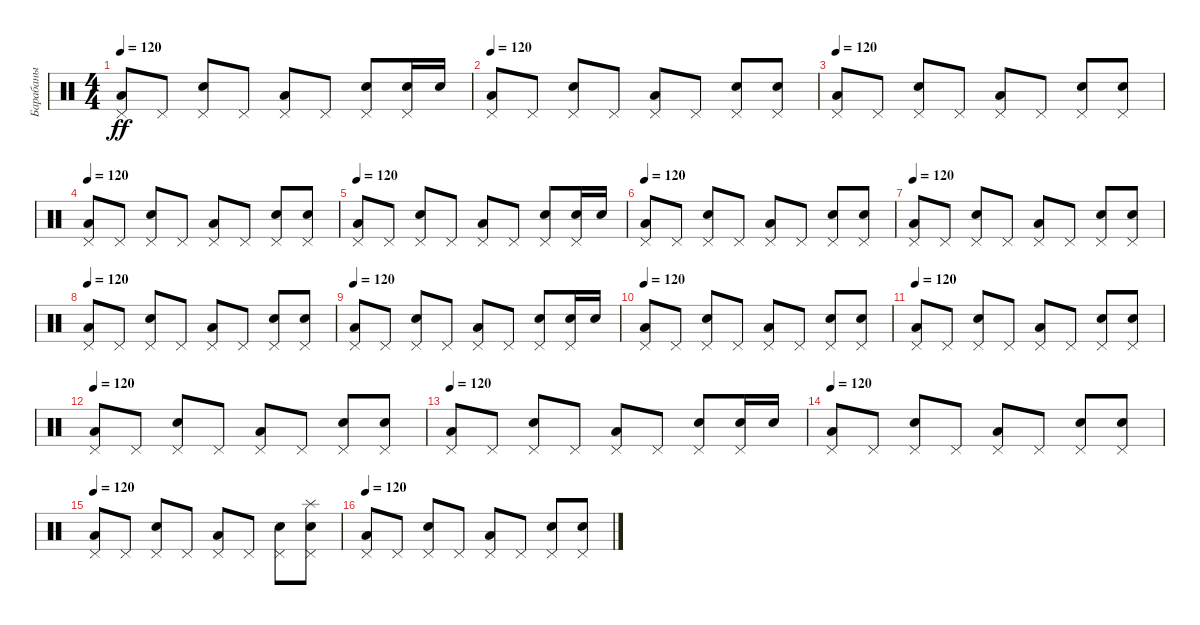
\track ("Барабаны" "Барабаны") {instrument percussion}
\staff {score}
\articulation defaults
\ts (4 4)
\tempo 120
\clef neutral
\ks c
("Low Floor Tom (hit)" "Pedal Hi-Hat (hit)").8{dy ff} "Pedal Hi-Hat (hit)".8 ("Electric Snare (hit)" "Pedal Hi-Hat (hit)").8 "Pedal Hi-Hat (hit)".8 ("Low Floor Tom (hit)" "Pedal Hi-Hat (hit)").8 "Pedal Hi-Hat (hit)".8 ("Electric Snare (hit)" "Pedal Hi-Hat (hit)").8 ("Electric Snare (hit)" "Pedal Hi-Hat (hit)").16 "Electric Snare (hit)".16 |
\tempo 120
("Low Floor Tom (hit)" "Pedal Hi-Hat (hit)").8 "Pedal Hi-Hat (hit)".8 ("Electric Snare (hit)" "Pedal Hi-Hat (hit)").8 "Pedal Hi-Hat (hit)".8 ("Low Floor Tom (hit)" "Pedal Hi-Hat (hit)").8 "Pedal Hi-Hat (hit)".8 ("Electric Snare (hit)" "Pedal Hi-Hat (hit)").8 ("Electric Snare (hit)" "Pedal Hi-Hat (hit)").8 |
\tempo 120
("Low Floor Tom (hit)" "Pedal Hi-Hat (hit)").8 "Pedal Hi-Hat (hit)".8 ("Electric Snare (hit)" "Pedal Hi-Hat (hit)").8 "Pedal Hi-Hat (hit)".8 ("Low Floor Tom (hit)" "Pedal Hi-Hat (hit)").8 "Pedal Hi-Hat (hit)".8 ("Electric Snare (hit)" "Pedal Hi-Hat (hit)").8 ("Electric Snare (hit)" "Pedal Hi-Hat (hit)").8 |
\tempo 120
("Low Floor Tom (hit)" "Pedal Hi-Hat (hit)").8 "Pedal Hi-Hat (hit)".8 ("Electric Snare (hit)" "Pedal Hi-Hat (hit)").8 "Pedal Hi-Hat (hit)".8 ("Low Floor Tom (hit)" "Pedal Hi-Hat (hit)").8 "Pedal Hi-Hat (hit)".8 ("Electric Snare (hit)" "Pedal Hi-Hat (hit)").8 ("Electric Snare (hit)" "Pedal Hi-Hat (hit)").8 |
\tempo 120
("Low Floor Tom (hit)" "Pedal Hi-Hat (hit)").8 "Pedal Hi-Hat (hit)".8 ("Electric Snare (hit)" "Pedal Hi-Hat (hit)").8 "Pedal Hi-Hat (hit)".8 ("Low Floor Tom (hit)" "Pedal Hi-Hat (hit)").8 "Pedal Hi-Hat (hit)".8 ("Electric Snare (hit)" "Pedal Hi-Hat (hit)").8 ("Electric Snare (hit)" "Pedal Hi-Hat (hit)").16 "Electric Snare (hit)".16 |
\tempo 120
("Low Floor Tom (hit)" "Pedal Hi-Hat (hit)").8 "Pedal Hi-Hat (hit)".8 ("Electric Snare (hit)" "Pedal Hi-Hat (hit)").8 "Pedal Hi-Hat (hit)".8 ("Low Floor Tom (hit)" "Pedal Hi-Hat (hit)").8 "Pedal Hi-Hat (hit)".8 ("Electric Snare (hit)" "Pedal Hi-Hat (hit)").8 ("Electric Snare (hit)" "Pedal Hi-Hat (hit)").8 |
\tempo 120
("Low Floor Tom (hit)" "Pedal Hi-Hat (hit)").8 "Pedal Hi-Hat (hit)".8 ("Electric Snare (hit)" "Pedal Hi-Hat (hit)").8 "Pedal Hi-Hat (hit)".8 ("Low Floor Tom (hit)" "Pedal Hi-Hat (hit)").8 "Pedal Hi-Hat (hit)".8 ("Electric Snare (hit)" "Pedal Hi-Hat (hit)").8 ("Electric Snare (hit)" "Pedal Hi-Hat (hit)").8 |
\tempo 120
("Low Floor Tom (hit)" "Pedal Hi-Hat (hit)").8 "Pedal Hi-Hat (hit)".8 ("Electric Snare (hit)" "Pedal Hi-Hat (hit)").8 "Pedal Hi-Hat (hit)".8 ("Low Floor Tom (hit)" "Pedal Hi-Hat (hit)").8 "Pedal Hi-Hat (hit)".8 ("Electric Snare (hit)" "Pedal Hi-Hat (hit)").8 ("Electric Snare (hit)" "Pedal Hi-Hat (hit)").8 |
\tempo 120
("Low Floor Tom (hit)" "Pedal Hi-Hat (hit)").8 "Pedal Hi-Hat (hit)".8 ("Electric Snare (hit)" "Pedal Hi-Hat (hit)").8 "Pedal Hi-Hat (hit)".8 ("Low Floor Tom (hit)" "Pedal Hi-Hat (hit)").8 "Pedal Hi-Hat (hit)".8 ("Electric Snare (hit)" "Pedal Hi-Hat (hit)").8 ("Electric Snare (hit)" "Pedal Hi-Hat (hit)").16 "Electric Snare (hit)".16 |
\tempo 120
("Low Floor Tom (hit)" "Pedal Hi-Hat (hit)").8 "Pedal Hi-Hat (hit)".8 ("Electric Snare (hit)" "Pedal Hi-Hat (hit)").8 "Pedal Hi-Hat (hit)".8 ("Low Floor Tom (hit)" "Pedal Hi-Hat (hit)").8 "Pedal Hi-Hat (hit)".8 ("Electric Snare (hit)" "Pedal Hi-Hat (hit)").8 ("Electric Snare (hit)" "Pedal Hi-Hat (hit)").8 |
\tempo 120
("Low Floor Tom (hit)" "Pedal Hi-Hat (hit)").8 "Pedal Hi-Hat (hit)".8 ("Electric Snare (hit)" "Pedal Hi-Hat (hit)").8 "Pedal Hi-Hat (hit)".8 ("Low Floor Tom (hit)" "Pedal Hi-Hat (hit)").8 "Pedal Hi-Hat (hit)".8 ("Electric Snare (hit)" "Pedal Hi-Hat (hit)").8 ("Electric Snare (hit)" "Pedal Hi-Hat (hit)").8 |
\tempo 120
("Low Floor Tom (hit)" "Pedal Hi-Hat (hit)").8 "Pedal Hi-Hat (hit)".8 ("Electric Snare (hit)" "Pedal Hi-Hat (hit)").8 "Pedal Hi-Hat (hit)".8 ("Low Floor Tom (hit)" "Pedal Hi-Hat (hit)").8 "Pedal Hi-Hat (hit)".8 ("Electric Snare (hit)" "Pedal Hi-Hat (hit)").8 ("Electric Snare (hit)" "Pedal Hi-Hat (hit)").8 |
\tempo 120
("Low Floor Tom (hit)" "Pedal Hi-Hat (hit)").8 "Pedal Hi-Hat (hit)".8 ("Electric Snare (hit)" "Pedal Hi-Hat (hit)").8 "Pedal Hi-Hat (hit)".8 ("Low Floor Tom (hit)" "Pedal Hi-Hat (hit)").8 "Pedal Hi-Hat (hit)".8 ("Electric Snare (hit)" "Pedal Hi-Hat (hit)").8 ("Electric Snare (hit)" "Pedal Hi-Hat (hit)").16 "Electric Snare (hit)".16 |
\tempo 120
("Low Floor Tom (hit)" "Pedal Hi-Hat (hit)").8 "Pedal Hi-Hat (hit)".8 ("Electric Snare (hit)" "Pedal Hi-Hat (hit)").8 "Pedal Hi-Hat (hit)".8 ("Low Floor Tom (hit)" "Pedal Hi-Hat (hit)").8 "Pedal Hi-Hat (hit)".8 ("Electric Snare (hit)" "Pedal Hi-Hat (hit)").8 ("Electric Snare (hit)" "Pedal Hi-Hat (hit)").8 |
\tempo 120
("Low Floor Tom (hit)" "Pedal Hi-Hat (hit)").8 "Pedal Hi-Hat (hit)".8 ("Electric Snare (hit)" "Pedal Hi-Hat (hit)").8 "Pedal Hi-Hat (hit)".8 ("Low Floor Tom (hit)" "Pedal Hi-Hat (hit)").8 "Pedal Hi-Hat (hit)".8 ("Electric Snare (hit)" "Pedal Hi-Hat (hit)").8 ("Electric Snare (hit)" "Pedal Hi-Hat (hit)" "Splash (hit)").8 |
\tempo 120
("Low Floor Tom (hit)" "Pedal Hi-Hat (hit)").8 "Pedal Hi-Hat (hit)".8 ("Electric Snare (hit)" "Pedal Hi-Hat (hit)").8 "Pedal Hi-Hat (hit)".8 ("Low Floor Tom (hit)" "Pedal Hi-Hat (hit)").8 "Pedal Hi-Hat (hit)".8 ("Electric Snare (hit)" "Pedal Hi-Hat (hit)").8 ("Electric Snare (hit)" "Pedal Hi-Hat (hit)").8
